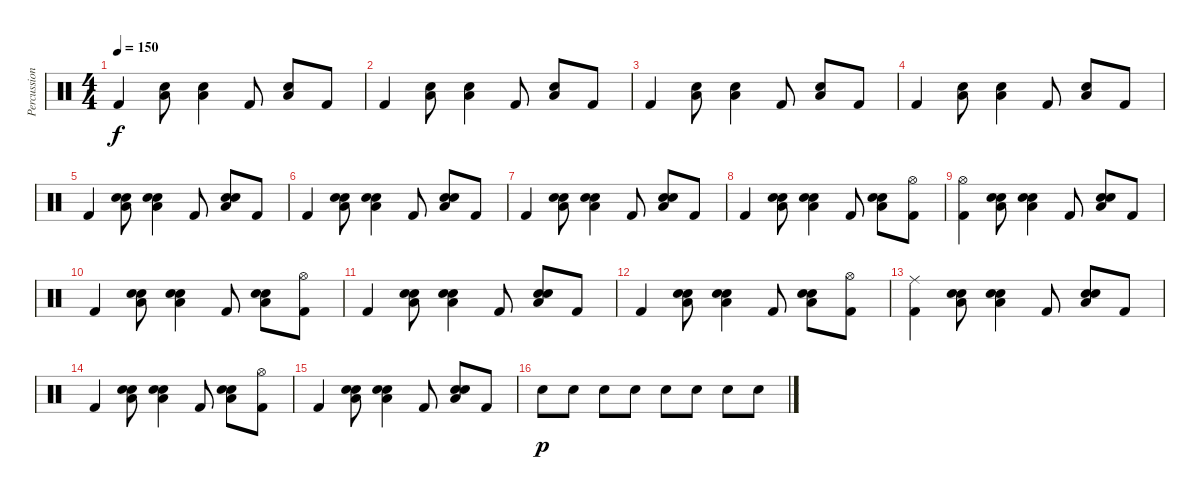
\track ("Percussions" "Percussion") {instrument percussion}
\staff {score}
\articulation defaults
\ts (4 4)
\tempo 150
\clef neutral
\ks c "Kick (hit) 2".4{dy f}
("Snare (hit) 2" "Low Floor Tom (hit)").8 ("Snare (hit) 2" "Low Floor Tom (hit)").4 "Kick (hit) 2".8 ("Snare (hit) 2" "Low Floor Tom (hit)").8 "Kick (hit) 2".8 |
"Kick (hit) 2".4 ("Snare (hit) 2" "Low Floor Tom (hit)").8 ("Snare (hit) 2" "Low Floor Tom (hit)").4 "Kick (hit) 2".8 ("Snare (hit) 2" "Low Floor Tom (hit)").8 "Kick (hit) 2".8 |
"Kick (hit) 2".4 ("Snare (hit) 2" "Low Floor Tom (hit)").8 ("Snare (hit) 2" "Low Floor Tom (hit)").4 "Kick (hit) 2".8 ("Snare (hit) 2" "Low Floor Tom (hit)").8 "Kick (hit) 2".8 |
"Kick (hit) 2".4 ("Snare (hit) 2" "Low Floor Tom (hit)").8 ("Snare (hit) 2" "Low Floor Tom (hit)").4 "Kick (hit) 2".8 ("Snare (hit) 2" "Low Floor Tom (hit)").8 "Kick (hit) 2".8 |
"Kick (hit) 2".4 ("Hand Clap (hit)" "Snare (hit) 2" "Low Floor Tom (hit)").8 ("Hand Clap (hit)" "Snare (hit) 2" "Low Floor Tom (hit)").4 "Kick (hit) 2".8 ("Hand Clap (hit)" "Snare (hit) 2" "Low Floor Tom (hit)").8 "Kick (hit) 2".8 |
"Kick (hit) 2".4 ("Hand Clap (hit)" "Snare (hit) 2" "Low Floor Tom (hit)").8 ("Hand Clap (hit)" "Snare (hit) 2" "Low Floor Tom (hit)").4 "Kick (hit) 2".8 ("Hand Clap (hit)" "Snare (hit) 2" "Low Floor Tom (hit)").8 "Kick (hit) 2".8 |
"Kick (hit) 2".4 ("Hand Clap (hit)" "Snare (hit) 2" "Low Floor Tom (hit)").8 ("Hand Clap (hit)" "Snare (hit) 2" "Low Floor Tom (hit)").4 "Kick (hit) 2".8 ("Hand Clap (hit)" "Snare (hit) 2" "Low Floor Tom (hit)").8 "Kick (hit) 2".8 |
"Kick (hit) 2".4 ("Hand Clap (hit)" "Snare (hit) 2" "Low Floor Tom (hit)").8 ("Hand Clap (hit)" "Snare (hit) 2" "Low Floor Tom (hit)").4 "Kick (hit) 2".8 ("Hand Clap (hit)" "Snare (hit) 2" "Low Floor Tom (hit)").8 ("Hi-Hat (open)" "Kick (hit) 2").8 |
("Hi-Hat (open)" "Kick (hit) 2").4 ("Hand Clap (hit)" "Snare (hit) 2" "Low Floor Tom (hit)").8 ("Hand Clap (hit)" "Snare (hit) 2" "Low Floor Tom (hit)").4 "Kick (hit) 2".8 ("Hand Clap (hit)" "Snare (hit) 2" "Low Floor Tom (hit)").8 "Kick (hit) 2".8 |
"Kick (hit) 2".4 ("Hand Clap (hit)" "Snare (hit) 2" "Low Floor Tom (hit)").8 ("Hand Clap (hit)" "Snare (hit) 2" "Low Floor Tom (hit)").4 "Kick (hit) 2".8 ("Hand Clap (hit)" "Snare (hit) 2" "Low Floor Tom (hit)").8 ("Hi-Hat (open)" "Kick (hit) 2").8 |
"Kick (hit) 2".4 ("Hand Clap (hit)" "Snare (hit) 2" "Low Floor Tom (hit)").8 ("Hand Clap (hit)" "Snare (hit) 2" "Low Floor Tom (hit)").4 "Kick (hit) 2".8 ("Hand Clap (hit)" "Snare (hit) 2" "Low Floor Tom (hit)").8 "Kick (hit) 2".8 |
"Kick (hit) 2".4 ("Hand Clap (hit)" "Snare (hit) 2" "Low Floor Tom (hit)").8 ("Hand Clap (hit)" "Snare (hit) 2" "Low Floor Tom (hit)").4 "Kick (hit) 2".8 ("Hand Clap (hit)" "Snare (hit) 2" "Low Floor Tom (hit)").8 ("Hi-Hat (open)" "Kick (hit) 2").8 |
("Ride (middle)" "Kick (hit) 2").4 ("Hand Clap (hit)" "Snare (hit) 2" "Low Floor Tom (hit)").8 ("Hand Clap (hit)" "Snare (hit) 2" "Low Floor Tom (hit)").4 "Kick (hit) 2".8 ("Hand Clap (hit)" "Snare (hit) 2" "Low Floor Tom (hit)").8 "Kick (hit) 2".8 |
"Kick (hit) 2".4 ("Hand Clap (hit)" "Snare (hit) 2" "Low Floor Tom (hit)").8 ("Hand Clap (hit)" "Snare (hit) 2" "Low Floor Tom (hit)").4 "Kick (hit) 2".8 ("Hand Clap (hit)" "Snare (hit) 2" "Low Floor Tom (hit)").8 ("Hi-Hat (open)" "Kick (hit) 2").8 |
"Kick (hit) 2".4 ("Hand Clap (hit)" "Snare (hit) 2" "Low Floor Tom (hit)").8 ("Hand Clap (hit)" "Snare (hit) 2" "Low Floor Tom (hit)").4 "Kick (hit) 2".8 ("Hand Clap (hit)" "Snare (hit) 2" "Low Floor Tom (hit)").8 "Kick (hit) 2".8 |
"Snare (hit) 2".8{dy p} "Snare (hit) 2".8 "Snare (hit) 2".8 "Snare (hit) 2".8 "Snare (hit) 2".8 "Snare (hit) 2".8 "Snare (hit) 2".8 "Snare (hit) 2".8
